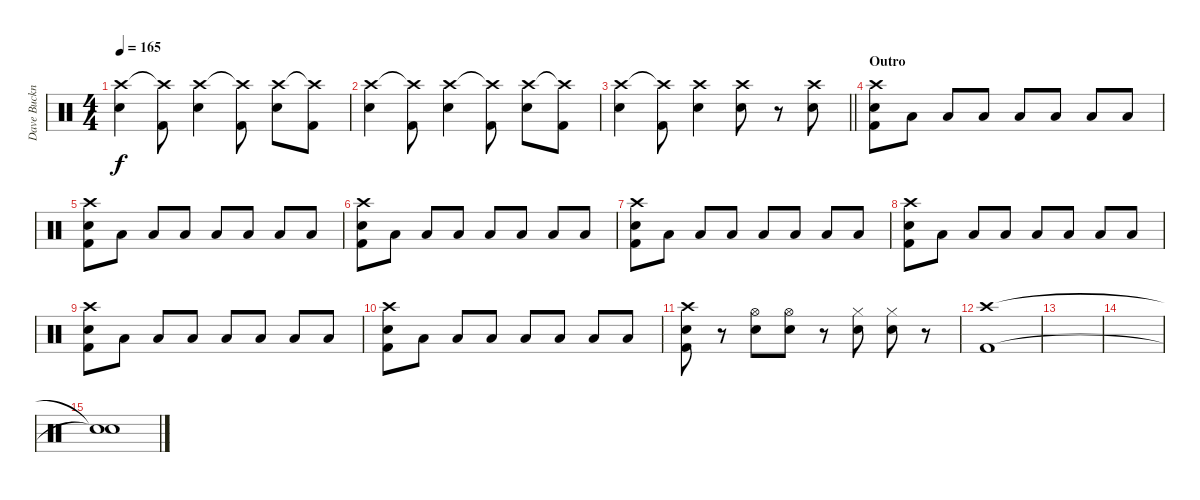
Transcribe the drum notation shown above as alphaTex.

\track ("Dave Buckner " "Dave Buckn") {instrument percussion}
\staff {score}
\articulation defaults
\ts (4 4)
\tempo 165
\clef neutral
\ks c
("Crash high (hit)" "Snare (hit) 2").4{dy f} ("Crash high (hit)"{t} "Kick (hit) 2").8 ("Crash high (hit)" "Snare (hit) 2").4 ("Crash high (hit)"{t} "Kick (hit) 2").8 ("Crash high (hit)" "Snare (hit) 2").8 ("Crash high (hit)"{t} "Kick (hit) 2").8 |
("Crash high (hit)" "Snare (hit) 2").4 ("Crash high (hit)"{t} "Kick (hit) 2").8 ("Crash high (hit)" "Snare (hit) 2").4 ("Crash high (hit)"{t} "Kick (hit) 2").8 ("Crash high (hit)" "Snare (hit) 2").8 ("Crash high (hit)"{t} "Kick (hit) 2").8 |
\barLineRight lightlight
("Crash high (hit)" "Snare (hit) 2").4 ("Crash high (hit)"{t} "Kick (hit) 2").8 ("Crash high (hit)" "Snare (hit) 2").4 ("Crash high (hit)" "Snare (hit) 2").8 r.8 ("Crash high (hit)" "Snare (hit) 2").8 |
\section ("" "Outro")
("Crash high (hit)" "Snare (hit) 2" "Kick (hit) 2").8 "Low Tom (hit)".8 "Low Tom (hit)".8 "Low Tom (hit)".8 "Low Tom (hit)".8 "Low Tom (hit)".8 "Low Tom (hit)".8 "Low Tom (hit)".8 |
("Crash high (hit)" "Snare (hit) 2" "Kick (hit) 2").8 "Low Tom (hit)".8 "Low Tom (hit)".8 "Low Tom (hit)".8 "Low Tom (hit)".8 "Low Tom (hit)".8 "Low Tom (hit)".8 "Low Tom (hit)".8 |
("Crash high (hit)" "Snare (hit) 2" "Kick (hit) 2").8 "Low Tom (hit)".8 "Low Tom (hit)".8 "Low Tom (hit)".8 "Low Tom (hit)".8 "Low Tom (hit)".8 "Low Tom (hit)".8 "Low Tom (hit)".8 |
("Crash high (hit)" "Snare (hit) 2" "Kick (hit) 2").8 "Low Tom (hit)".8 "Low Tom (hit)".8 "Low Tom (hit)".8 "Low Tom (hit)".8 "Low Tom (hit)".8 "Low Tom (hit)".8 "Low Tom (hit)".8 |
("Crash high (hit)" "Snare (hit) 2" "Kick (hit) 2").8 "Low Tom (hit)".8 "Low Tom (hit)".8 "Low Tom (hit)".8 "Low Tom (hit)".8 "Low Tom (hit)".8 "Low Tom (hit)".8 "Low Tom (hit)".8 |
("Crash high (hit)" "Snare (hit) 2" "Kick (hit) 2").8 "Low Tom (hit)".8 "Low Tom (hit)".8 "Low Tom (hit)".8 "Low Tom (hit)".8 "Low Tom (hit)".8 "Low Tom (hit)".8 "Low Tom (hit)".8 |
("Crash high (hit)" "Snare (hit) 2" "Kick (hit) 2").8 "Low Tom (hit)".8 "Low Tom (hit)".8 "Low Tom (hit)".8 "Low Tom (hit)".8 "Low Tom (hit)".8 "Low Tom (hit)".8 "Low Tom (hit)".8 |
("Crash high (hit)" "Snare (hit) 2" "Kick (hit) 2").8 r.8 ("Hi-Hat (open)" "Snare (hit) 2").8 ("Hi-Hat (open)" "Snare (hit) 2").8 r.8 ("Hi-Hat (closed)" "Snare (hit) 2").8 ("Hi-Hat (closed)" "Snare (hit) 2").8 r.8 |
("Crash high (hit)" "Kick (hit) 2").1 |
|
|
("Snare (hit)"{t} "Snare (hit)"{t}).1
